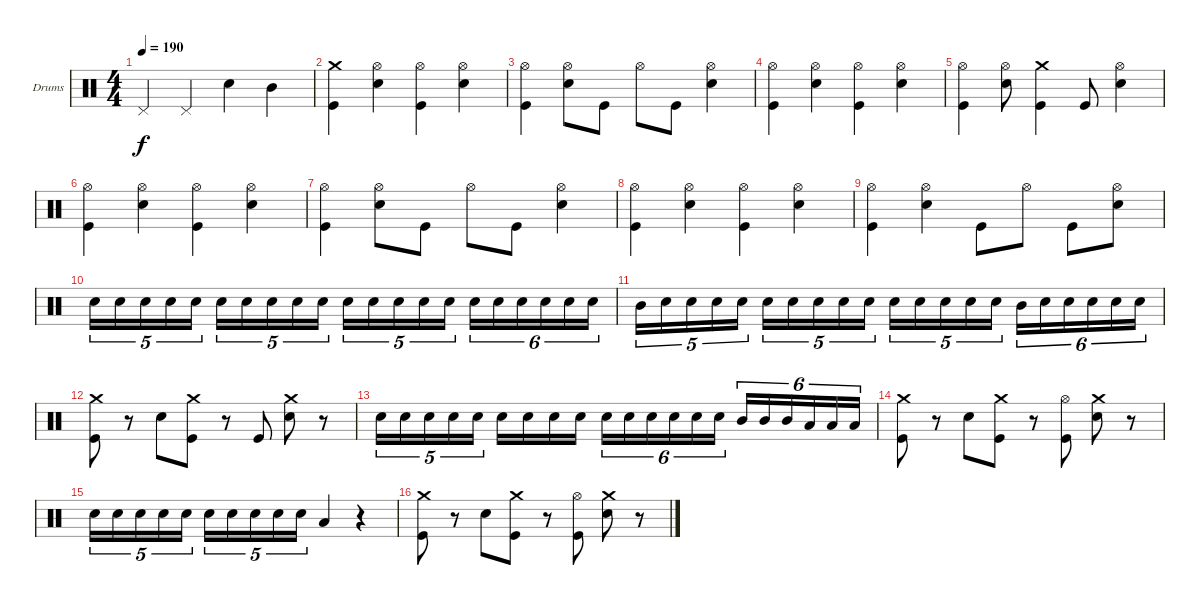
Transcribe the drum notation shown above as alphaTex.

\bracketExtendMode groupsimilarinstruments
\firstSystemTrackNameOrientation horizontal
\otherSystemsTrackNameOrientation horizontal
\track ("Drumkit" "Drums") {instrument percussion}
\staff {score}
\articulation defaults
\ts (4 4)
\tempo 190
\clef neutral
\ks c "Pedal Hi-Hat (hit)".4{dy f} "Pedal Hi-Hat (hit)".4 "Snare (hit) 2".4 "Mid Tom (hit)".4
|
("Kick (hit)" "Crash medium (hit)").4 ("Snare (hit) 2" "Hi-Hat (open)").4 ("Hi-Hat (open)" "Kick (hit)").4 ("Snare (hit) 2" "Hi-Hat (open)").4 |
("Kick (hit)" "Hi-Hat (open)").4 ("Hi-Hat (open)" "Snare (hit) 2").8 "Kick (hit)".8 "Hi-Hat (open)".8 "Kick (hit)".8 ("Snare (hit) 2" "Hi-Hat (open)").4 |
("Hi-Hat (open)" "Kick (hit)").4 ("Snare (hit) 2" "Hi-Hat (open)").4 ("Kick (hit)" "Hi-Hat (open)").4 ("Snare (hit) 2" "Hi-Hat (open)").4 |
("Hi-Hat (open)" "Kick (hit)").4 ("Snare (hit) 2" "Hi-Hat (open)").8 ("Kick (hit)" "Crash medium (hit)").4 "Kick (hit)".8 ("Hi-Hat (open)" "Snare (hit) 2").4 |
("Hi-Hat (open)" "Kick (hit)").4 ("Snare (hit) 2" "Hi-Hat (open)").4 ("Hi-Hat (open)" "Kick (hit)").4 ("Snare (hit) 2" "Hi-Hat (open)").4 |
("Kick (hit)" "Hi-Hat (open)").4 ("Snare (hit) 2" "Hi-Hat (open)").8 "Kick (hit)".8 "Hi-Hat (open)".8 "Kick (hit)".8 ("Snare (hit) 2" "Hi-Hat (open)").4 |
("Kick (hit)" "Hi-Hat (open)").4 ("Hi-Hat (open)" "Snare (hit) 2").4 ("Kick (hit)" "Hi-Hat (open)").4 ("Snare (hit) 2" "Hi-Hat (open)").4 |
("Hi-Hat (open)" "Kick (hit)").4 ("Snare (hit) 2" "Hi-Hat (open)").4 "Kick (hit)".8 "Hi-Hat (open)".8 "Kick (hit)".8 ("Hi-Hat (open)" "Snare (hit) 2").8 |
"Snare (hit) 2".16{tu (5 4)} "Snare (hit) 2".16{tu (5 4)} "Snare (hit) 2".16{tu (5 4)} "Snare (hit) 2".16{tu (5 4)} "Snare (hit) 2".16{tu (5 4)} "Snare (hit) 2".16{tu (5 4)} "Snare (hit) 2".16{tu (5 4)} "Snare (hit) 2".16{tu (5 4)} "Snare (hit) 2".16{tu (5 4)} "Snare (hit) 2".16{tu (5 4)} "Snare (hit) 2".16{tu (5 4)} "Snare (hit) 2".16{tu (5 4)} "Snare (hit) 2".16{tu (5 4)} "Snare (hit) 2".16{tu (5 4)} "Snare (hit) 2".16{tu (5 4)} "Snare (hit) 2".16{tu (6 4)} "Snare (hit) 2".16{tu (6 4)} "Snare (hit) 2".16{tu (6 4)} "Snare (hit) 2".16{tu (6 4)} "Snare (hit) 2".16{tu (6 4)} "Snare (hit) 2".16{tu (6 4)} |
"Mid Tom (hit)".16{tu (5 4)} "Snare (hit) 2".16{tu (5 4)} "Snare (hit) 2".16{tu (5 4)} "Snare (hit) 2".16{tu (5 4)} "Snare (hit) 2".16{tu (5 4)} "Snare (hit) 2".16{tu (5 4)} "Snare (hit) 2".16{tu (5 4)} "Snare (hit) 2".16{tu (5 4)} "Snare (hit) 2".16{tu (5 4)} "Snare (hit) 2".16{tu (5 4)} "Snare (hit) 2".16{tu (5 4)} "Snare (hit) 2".16{tu (5 4)} "Snare (hit) 2".16{tu (5 4)} "Snare (hit) 2".16{tu (5 4)} "Snare (hit) 2".16{tu (5 4)} "Mid Tom (hit)".16{tu (6 4)} "Snare (hit) 2".16{tu (6 4)} "Snare (hit) 2".16{tu (6 4)} "Snare (hit) 2".16{tu (6 4)} "Snare (hit) 2".16{tu (6 4)} "Snare (hit) 2".16{tu (6 4)} |
("Kick (hit)" "Crash medium (hit)").8 r.8 "Snare (hit) 2".8 ("Kick (hit)" "Crash medium (hit)").8 r.8 "Kick (hit)".8 ("Snare (hit) 2" "Crash medium (hit)").8 r.8 |
"Snare (hit) 2".16{tu (5 4)} "Snare (hit) 2".16{tu (5 4)} "Snare (hit) 2".16{tu (5 4)} "Snare (hit) 2".16{tu (5 4)} "Snare (hit) 2".16{tu (5 4)} "Snare (hit) 2".16 "Snare (hit) 2".16 "Snare (hit) 2".16 "Snare (hit) 2".16 "Snare (hit) 2".16{tu (6 4)} "Snare (hit) 2".16{tu (6 4)} "Snare (hit) 2".16{tu (6 4)} "Snare (hit) 2".16{tu (6 4)} "Snare (hit) 2".16{tu (6 4)} "Snare (hit) 2".16{tu (6 4)} "Mid Tom (hit)".16{tu (6 4)} "Mid Tom (hit)".16{tu (6 4)} "Mid Tom (hit)".16{tu (6 4)} "Low Tom (hit)".16{tu (6 4)} "Low Tom (hit)".16{tu (6 4)} "Low Tom (hit)".16{tu (6 4)} |
("Kick (hit)" "Crash medium (hit)").8 r.8 "Snare (hit) 2".8 ("Crash medium (hit)" "Kick (hit)").8 r.8 ("Hi-Hat (open)" "Kick (hit)").8 ("Crash medium (hit)" "Snare (hit) 2").8 r.8 |
"Snare (hit) 2".16{tu (5 4)} "Snare (hit) 2".16{tu (5 4)} "Snare (hit) 2".16{tu (5 4)} "Snare (hit) 2".16{tu (5 4)} "Snare (hit) 2".16{tu (5 4)} "Snare (hit) 2".16{tu (5 4)} "Snare (hit) 2".16{tu (5 4)} "Snare (hit) 2".16{tu (5 4)} "Snare (hit) 2".16{tu (5 4)} "Snare (hit) 2".16{tu (5 4)} "Low Tom (hit)".4 r.4 |
("Kick (hit)" "Crash medium (hit)").8 r.8 "Snare (hit) 2".8 ("Kick (hit)" "Crash medium (hit)").8 r.8 ("Kick (hit)" "Hi-Hat (open)").8 ("Crash medium (hit)" "Snare (hit) 2").8 r.8
